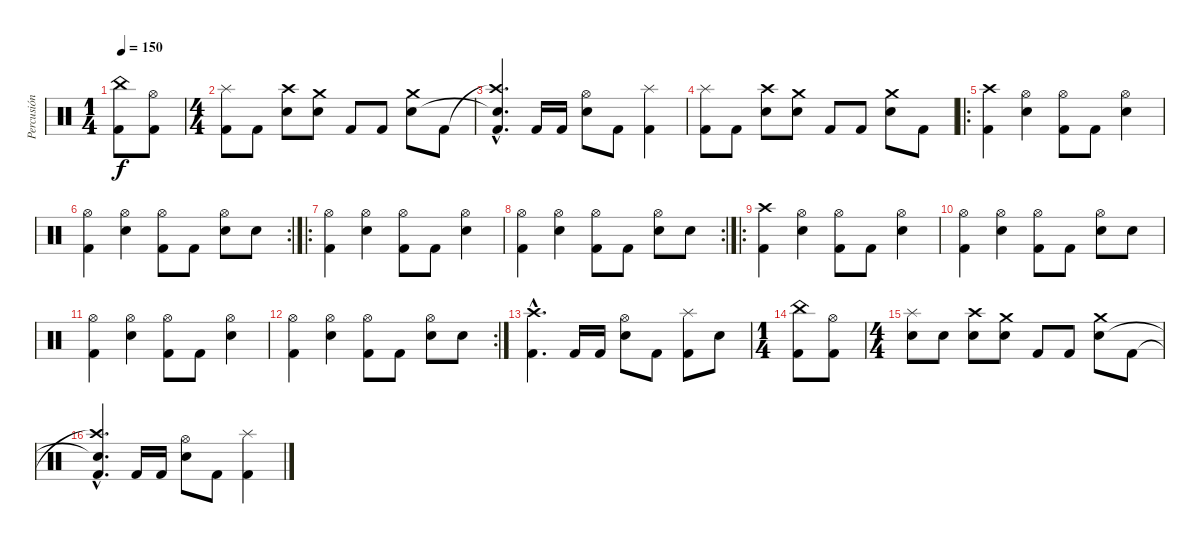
\track ("Percusión" "Percusión") {instrument percussion}
\staff {score}
\articulation defaults
\ts (1 4)
\tempo 150
\clef neutral
\ks c
("China (hit)" "Kick (hit) 2").8{dy f} ("Hi-Hat (open)" "Kick (hit) 2").8 |
\ts (4 4)
("Splash (hit)" "Kick (hit) 2").8 "Kick (hit) 2".8 ("Crash high (hit)" "Electric Snare (hit)").8 ("Crash medium (hit)" "Electric Snare (hit)").8 "Kick (hit) 2".8 "Kick (hit) 2".8 ("Crash medium (hit)" "Electric Snare (hit)").8 "Kick (hit) 2".8 |
("Crash high (hit)"{hac t} "Snare (hit)"{hac t} "Kick (hit) 2"{hac t}).4{d} "Kick (hit) 2".16 "Kick (hit) 2".16 ("Hi-Hat (open)" "Electric Snare (hit)").8 "Kick (hit) 2".8 ("Splash (hit)" "Kick (hit) 2").4 |
("Splash (hit)" "Kick (hit) 2").8 "Kick (hit) 2".8 ("Crash high (hit)" "Electric Snare (hit)").8 ("Crash medium (hit)" "Electric Snare (hit)").8 "Kick (hit) 2".8 "Kick (hit) 2".8 ("Crash medium (hit)" "Electric Snare (hit)").8 "Kick (hit) 2".8 |
\ro
("Crash high (hit)" "Kick (hit) 2").4 ("Hi-Hat (open)" "Electric Snare (hit)").4 ("Hi-Hat (open)" "Kick (hit) 2").8 "Kick (hit) 2".8 ("Hi-Hat (open)" "Electric Snare (hit)").4 |
\rc 2
("Hi-Hat (open)" "Kick (hit) 2").4 ("Hi-Hat (open)" "Electric Snare (hit)").4 ("Hi-Hat (open)" "Kick (hit) 2").8 "Kick (hit) 2".8 ("Hi-Hat (open)" "Electric Snare (hit)").8 "Electric Snare (hit)".8 |
\ro
("Hi-Hat (open)" "Kick (hit) 2").4 ("Hi-Hat (open)" "Electric Snare (hit)").4 ("Hi-Hat (open)" "Kick (hit) 2").8 "Kick (hit) 2".8 ("Hi-Hat (open)" "Electric Snare (hit)").4 |
\rc 2
("Hi-Hat (open)" "Kick (hit) 2").4 ("Hi-Hat (open)" "Electric Snare (hit)").4 ("Hi-Hat (open)" "Kick (hit) 2").8 "Kick (hit) 2".8 ("Hi-Hat (open)" "Electric Snare (hit)").8 "Electric Snare (hit)".8 |
\ro
("Crash high (hit)" "Kick (hit) 2").4 ("Hi-Hat (open)" "Electric Snare (hit)").4 ("Hi-Hat (open)" "Kick (hit) 2").8 "Kick (hit) 2".8 ("Hi-Hat (open)" "Electric Snare (hit)").4 |
("Hi-Hat (open)" "Kick (hit) 2").4 ("Hi-Hat (open)" "Electric Snare (hit)").4 ("Hi-Hat (open)" "Kick (hit) 2").8 "Kick (hit) 2".8 ("Hi-Hat (open)" "Electric Snare (hit)").8 "Electric Snare (hit)".8 |
("Hi-Hat (open)" "Kick (hit) 2").4 ("Hi-Hat (open)" "Electric Snare (hit)").4 ("Hi-Hat (open)" "Kick (hit) 2").8 "Kick (hit) 2".8 ("Hi-Hat (open)" "Electric Snare (hit)").4 |
\rc 2
("Hi-Hat (open)" "Kick (hit) 2").4 ("Hi-Hat (open)" "Electric Snare (hit)").4 ("Hi-Hat (open)" "Kick (hit) 2").8 "Kick (hit) 2".8 ("Hi-Hat (open)" "Electric Snare (hit)").8 "Electric Snare (hit)".8 |
("Crash high (hit)"{hac} "Kick (hit) 2"{hac}).4{d} "Kick (hit) 2".16 "Kick (hit) 2".16 ("Hi-Hat (open)" "Electric Snare (hit)").8 "Kick (hit) 2".8 ("Splash (hit)" "Kick (hit) 2").8 "Electric Snare (hit)".8 |
\ts (1 4)
("China (hit)" "Kick (hit) 2").8 ("Hi-Hat (open)" "Kick (hit) 2").8 |
\ts (4 4)
("Splash (hit)" "Electric Snare (hit)").8 "Electric Snare (hit)".8 ("Crash high (hit)" "Electric Snare (hit)").8 ("Crash medium (hit)" "Electric Snare (hit)").8 "Kick (hit) 2".8 "Kick (hit) 2".8 ("Crash medium (hit)" "Electric Snare (hit)").8 "Kick (hit) 2".8 |
("Crash high (hit)"{hac t} "Snare (hit)"{hac t} "Kick (hit) 2"{hac}).4{d} "Kick (hit) 2".16 "Kick (hit) 2".16 ("Hi-Hat (open)" "Electric Snare (hit)").8 "Kick (hit) 2".8 ("Splash (hit)" "Kick (hit) 2").4
